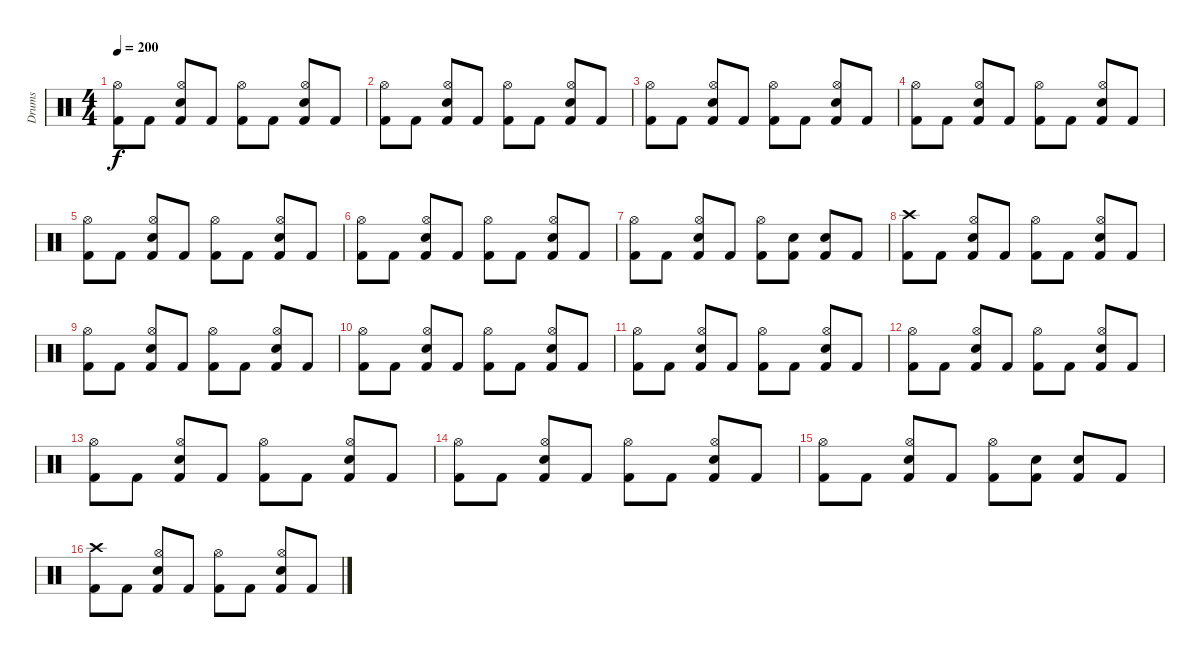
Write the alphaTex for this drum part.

\track ("Drums" "Drums") {instrument percussion}
\staff {score}
\articulation defaults
\ts (4 4)
\tempo 200
\clef neutral
\ks c
("Kick (hit) 2" "Hi-Hat (open)").8{dy f} "Kick (hit) 2".8 ("Kick (hit) 2" "Snare (hit) 2" "Hi-Hat (open)").8 "Kick (hit) 2".8 ("Kick (hit) 2" "Hi-Hat (open)").8 "Kick (hit) 2".8 ("Kick (hit) 2" "Snare (hit) 2" "Hi-Hat (open)").8 "Kick (hit) 2".8 |
("Kick (hit) 2" "Hi-Hat (open)").8 "Kick (hit) 2".8 ("Kick (hit) 2" "Snare (hit) 2" "Hi-Hat (open)").8 "Kick (hit) 2".8 ("Kick (hit) 2" "Hi-Hat (open)").8 "Kick (hit) 2".8 ("Kick (hit) 2" "Snare (hit) 2" "Hi-Hat (open)").8 "Kick (hit) 2".8 |
("Kick (hit) 2" "Hi-Hat (open)").8 "Kick (hit) 2".8 ("Kick (hit) 2" "Snare (hit) 2" "Hi-Hat (open)").8 "Kick (hit) 2".8 ("Kick (hit) 2" "Hi-Hat (open)").8 "Kick (hit) 2".8 ("Kick (hit) 2" "Snare (hit) 2" "Hi-Hat (open)").8 "Kick (hit) 2".8 |
("Kick (hit) 2" "Hi-Hat (open)").8 "Kick (hit) 2".8 ("Kick (hit) 2" "Snare (hit) 2" "Hi-Hat (open)").8 "Kick (hit) 2".8 ("Kick (hit) 2" "Hi-Hat (open)").8 "Kick (hit) 2".8 ("Kick (hit) 2" "Snare (hit) 2" "Hi-Hat (open)").8 "Kick (hit) 2".8 |
("Kick (hit) 2" "Hi-Hat (open)").8 "Kick (hit) 2".8 ("Kick (hit) 2" "Snare (hit) 2" "Hi-Hat (open)").8 "Kick (hit) 2".8 ("Kick (hit) 2" "Hi-Hat (open)").8 "Kick (hit) 2".8 ("Kick (hit) 2" "Snare (hit) 2" "Hi-Hat (open)").8 "Kick (hit) 2".8 |
("Kick (hit) 2" "Hi-Hat (open)").8 "Kick (hit) 2".8 ("Kick (hit) 2" "Snare (hit) 2" "Hi-Hat (open)").8 "Kick (hit) 2".8 ("Kick (hit) 2" "Hi-Hat (open)").8 "Kick (hit) 2".8 ("Kick (hit) 2" "Snare (hit) 2" "Hi-Hat (open)").8 "Kick (hit) 2".8 |
("Kick (hit) 2" "Hi-Hat (open)").8 "Kick (hit) 2".8 ("Kick (hit) 2" "Snare (hit) 2" "Hi-Hat (open)").8 "Kick (hit) 2".8 ("Kick (hit) 2" "Hi-Hat (open)").8 ("Kick (hit) 2" "Snare (hit) 2").8 ("Kick (hit) 2" "Snare (hit) 2").8 "Kick (hit) 2".8 |
("Kick (hit) 2" "Crash high (hit)").8 "Kick (hit) 2".8 ("Kick (hit) 2" "Snare (hit) 2" "Hi-Hat (open)").8 "Kick (hit) 2".8 ("Kick (hit) 2" "Hi-Hat (open)").8 "Kick (hit) 2".8 ("Kick (hit) 2" "Snare (hit) 2" "Hi-Hat (open)").8 "Kick (hit) 2".8 |
("Kick (hit) 2" "Hi-Hat (open)").8 "Kick (hit) 2".8 ("Kick (hit) 2" "Snare (hit) 2" "Hi-Hat (open)").8 "Kick (hit) 2".8 ("Kick (hit) 2" "Hi-Hat (open)").8 "Kick (hit) 2".8 ("Kick (hit) 2" "Snare (hit) 2" "Hi-Hat (open)").8 "Kick (hit) 2".8 |
("Kick (hit) 2" "Hi-Hat (open)").8 "Kick (hit) 2".8 ("Kick (hit) 2" "Snare (hit) 2" "Hi-Hat (open)").8 "Kick (hit) 2".8 ("Kick (hit) 2" "Hi-Hat (open)").8 "Kick (hit) 2".8 ("Kick (hit) 2" "Snare (hit) 2" "Hi-Hat (open)").8 "Kick (hit) 2".8 |
("Kick (hit) 2" "Hi-Hat (open)").8 "Kick (hit) 2".8 ("Kick (hit) 2" "Snare (hit) 2" "Hi-Hat (open)").8 "Kick (hit) 2".8 ("Kick (hit) 2" "Hi-Hat (open)").8 "Kick (hit) 2".8 ("Kick (hit) 2" "Snare (hit) 2" "Hi-Hat (open)").8 "Kick (hit) 2".8 |
("Kick (hit) 2" "Hi-Hat (open)").8 "Kick (hit) 2".8 ("Kick (hit) 2" "Snare (hit) 2" "Hi-Hat (open)").8 "Kick (hit) 2".8 ("Kick (hit) 2" "Hi-Hat (open)").8 "Kick (hit) 2".8 ("Kick (hit) 2" "Snare (hit) 2" "Hi-Hat (open)").8 "Kick (hit) 2".8 |
("Kick (hit) 2" "Hi-Hat (open)").8 "Kick (hit) 2".8 ("Kick (hit) 2" "Snare (hit) 2" "Hi-Hat (open)").8 "Kick (hit) 2".8 ("Kick (hit) 2" "Hi-Hat (open)").8 "Kick (hit) 2".8 ("Kick (hit) 2" "Snare (hit) 2" "Hi-Hat (open)").8 "Kick (hit) 2".8 |
("Kick (hit) 2" "Hi-Hat (open)").8 "Kick (hit) 2".8 ("Kick (hit) 2" "Snare (hit) 2" "Hi-Hat (open)").8 "Kick (hit) 2".8 ("Kick (hit) 2" "Hi-Hat (open)").8 "Kick (hit) 2".8 ("Kick (hit) 2" "Snare (hit) 2" "Hi-Hat (open)").8 "Kick (hit) 2".8 |
("Kick (hit) 2" "Hi-Hat (open)").8 "Kick (hit) 2".8 ("Kick (hit) 2" "Snare (hit) 2" "Hi-Hat (open)").8 "Kick (hit) 2".8 ("Kick (hit) 2" "Hi-Hat (open)").8 ("Kick (hit) 2" "Snare (hit) 2").8 ("Kick (hit) 2" "Snare (hit) 2").8 "Kick (hit) 2".8 |
("Kick (hit) 2" "Crash high (hit)").8 "Kick (hit) 2".8 ("Kick (hit) 2" "Snare (hit) 2" "Hi-Hat (open)").8 "Kick (hit) 2".8 ("Kick (hit) 2" "Hi-Hat (open)").8 "Kick (hit) 2".8 ("Kick (hit) 2" "Snare (hit) 2" "Hi-Hat (open)").8 "Kick (hit) 2".8
